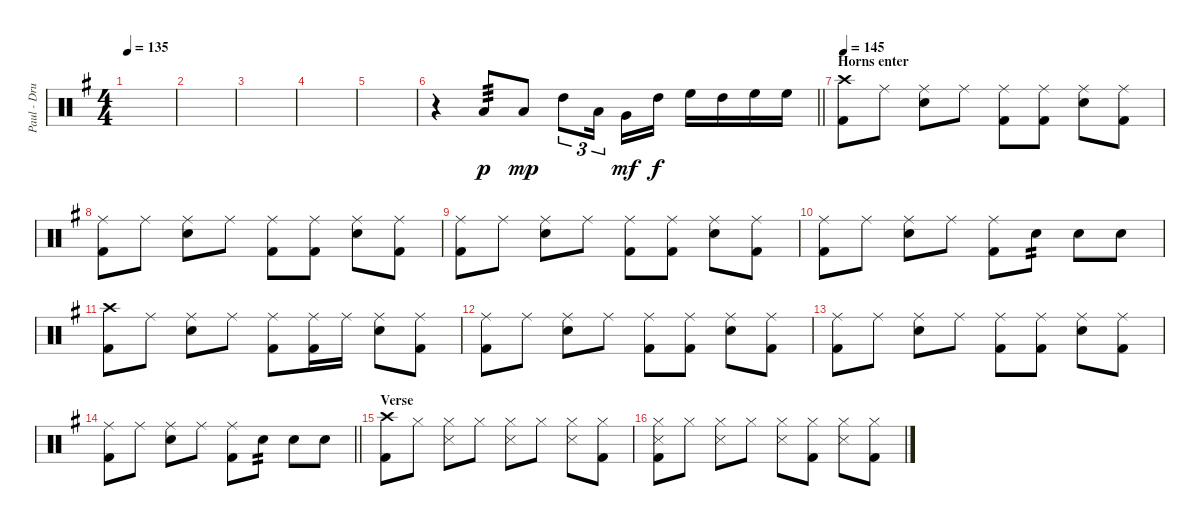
\track ("Paul - Drums" "Paul - Dru") {instrument percussion}
\staff {score}
\articulation defaults
\ts (4 4)
\tempo 135
\clef neutral
\ks g
|
|
|
|
|
\barLineRight lightlight
r.4 "Low Tom (hit)".8{tp 3 dy p} "Low Tom (hit)".8{dy mp} "High Tom (hit)".8{tu (3 2)} "Low Tom (hit)".16{tu (3 2) beam splitsecondary} "Very Low Tom (hit)".16{dy mf} "High Tom (hit)".16{dy f} "High Floor Tom (hit)".16 "High Tom (hit)".16 "High Floor Tom (hit)".16 "High Floor Tom (hit)".16 |
\section ("" "Horns enter")
\tempo 145
("Crash high (hit)" "Kick (hit) 2").8 "Ride (middle)".8 ("Ride (middle)" "Electric Snare (hit)").8 "Ride (middle)".8 ("Ride (middle)" "Kick (hit) 2").8 ("Ride (middle)" "Kick (hit) 2").8 ("Ride (middle)" "Electric Snare (hit)").8 ("Ride (middle)" "Kick (hit) 2").8 |
("Ride (middle)" "Kick (hit) 2").8 "Ride (middle)".8 ("Ride (middle)" "Electric Snare (hit)").8 "Ride (middle)".8 ("Ride (middle)" "Kick (hit) 2").8 ("Ride (middle)" "Kick (hit) 2").8 ("Ride (middle)" "Electric Snare (hit)").8 ("Ride (middle)" "Kick (hit) 2").8 |
("Ride (middle)" "Kick (hit) 2").8 "Ride (middle)".8 ("Ride (middle)" "Electric Snare (hit)").8 "Ride (middle)".8 ("Ride (middle)" "Kick (hit) 2").8 ("Ride (middle)" "Kick (hit) 2").8 ("Ride (middle)" "Electric Snare (hit)").8 ("Ride (middle)" "Kick (hit) 2").8 |
("Ride (middle)" "Kick (hit) 2").8 "Ride (middle)".8 ("Ride (middle)" "Electric Snare (hit)").8 "Ride (middle)".8 ("Ride (middle)" "Kick (hit) 2").8 "Electric Snare (hit)".8{tp 2} "Electric Snare (hit)".8 "Electric Snare (hit)".8 |
("Crash high (hit)" "Kick (hit) 2").8 "Ride (middle)".8 ("Ride (middle)" "Electric Snare (hit)").8 "Ride (middle)".8 ("Ride (middle)" "Kick (hit) 2").8 ("Ride (middle)" "Kick (hit) 2").16 "Ride (middle)".16 ("Ride (middle)" "Electric Snare (hit)").8 ("Ride (middle)" "Kick (hit) 2").8 |
("Ride (middle)" "Kick (hit) 2").8 "Ride (middle)".8 ("Ride (middle)" "Electric Snare (hit)").8 "Ride (middle)".8 ("Ride (middle)" "Kick (hit) 2").8 ("Ride (middle)" "Kick (hit) 2").8 ("Ride (middle)" "Electric Snare (hit)").8 ("Ride (middle)" "Kick (hit) 2").8 |
("Ride (middle)" "Kick (hit) 2").8 "Ride (middle)".8 ("Ride (middle)" "Electric Snare (hit)").8 "Ride (middle)".8 ("Ride (middle)" "Kick (hit) 2").8 ("Ride (middle)" "Kick (hit) 2").8 ("Ride (middle)" "Electric Snare (hit)").8 ("Ride (middle)" "Kick (hit) 2").8 |
\barLineRight lightlight
("Ride (middle)" "Kick (hit) 2").8 "Ride (middle)".8 ("Ride (middle)" "Electric Snare (hit)").8 "Ride (middle)".8 ("Ride (middle)" "Kick (hit) 2").8 "Electric Snare (hit)".8{tp 2} "Electric Snare (hit)".8 "Electric Snare (hit)".8 |
\section ("" "Verse")
("Crash high (hit)" "Kick (hit) 2").8 "Hi-Hat (closed)".8 ("Hi-Hat (closed)" "Snare (side stick) 3").8 "Hi-Hat (closed)".8 ("Hi-Hat (closed)" "Snare (side stick) 3").8 "Hi-Hat (closed)".8 ("Hi-Hat (closed)" "Snare (side stick) 3").8 ("Hi-Hat (closed)" "Kick (hit) 2").8 |
("Hi-Hat (closed)" "Snare (side stick) 3" "Kick (hit) 2").8 "Hi-Hat (closed)".8 ("Hi-Hat (closed)" "Snare (side stick) 3").8 "Hi-Hat (closed)".8 ("Hi-Hat (closed)" "Snare (side stick) 3").8 ("Hi-Hat (closed)" "Kick (hit) 2").8 ("Hi-Hat (closed)" "Snare (side stick) 3").8 ("Hi-Hat (closed)" "Kick (hit) 2").8
